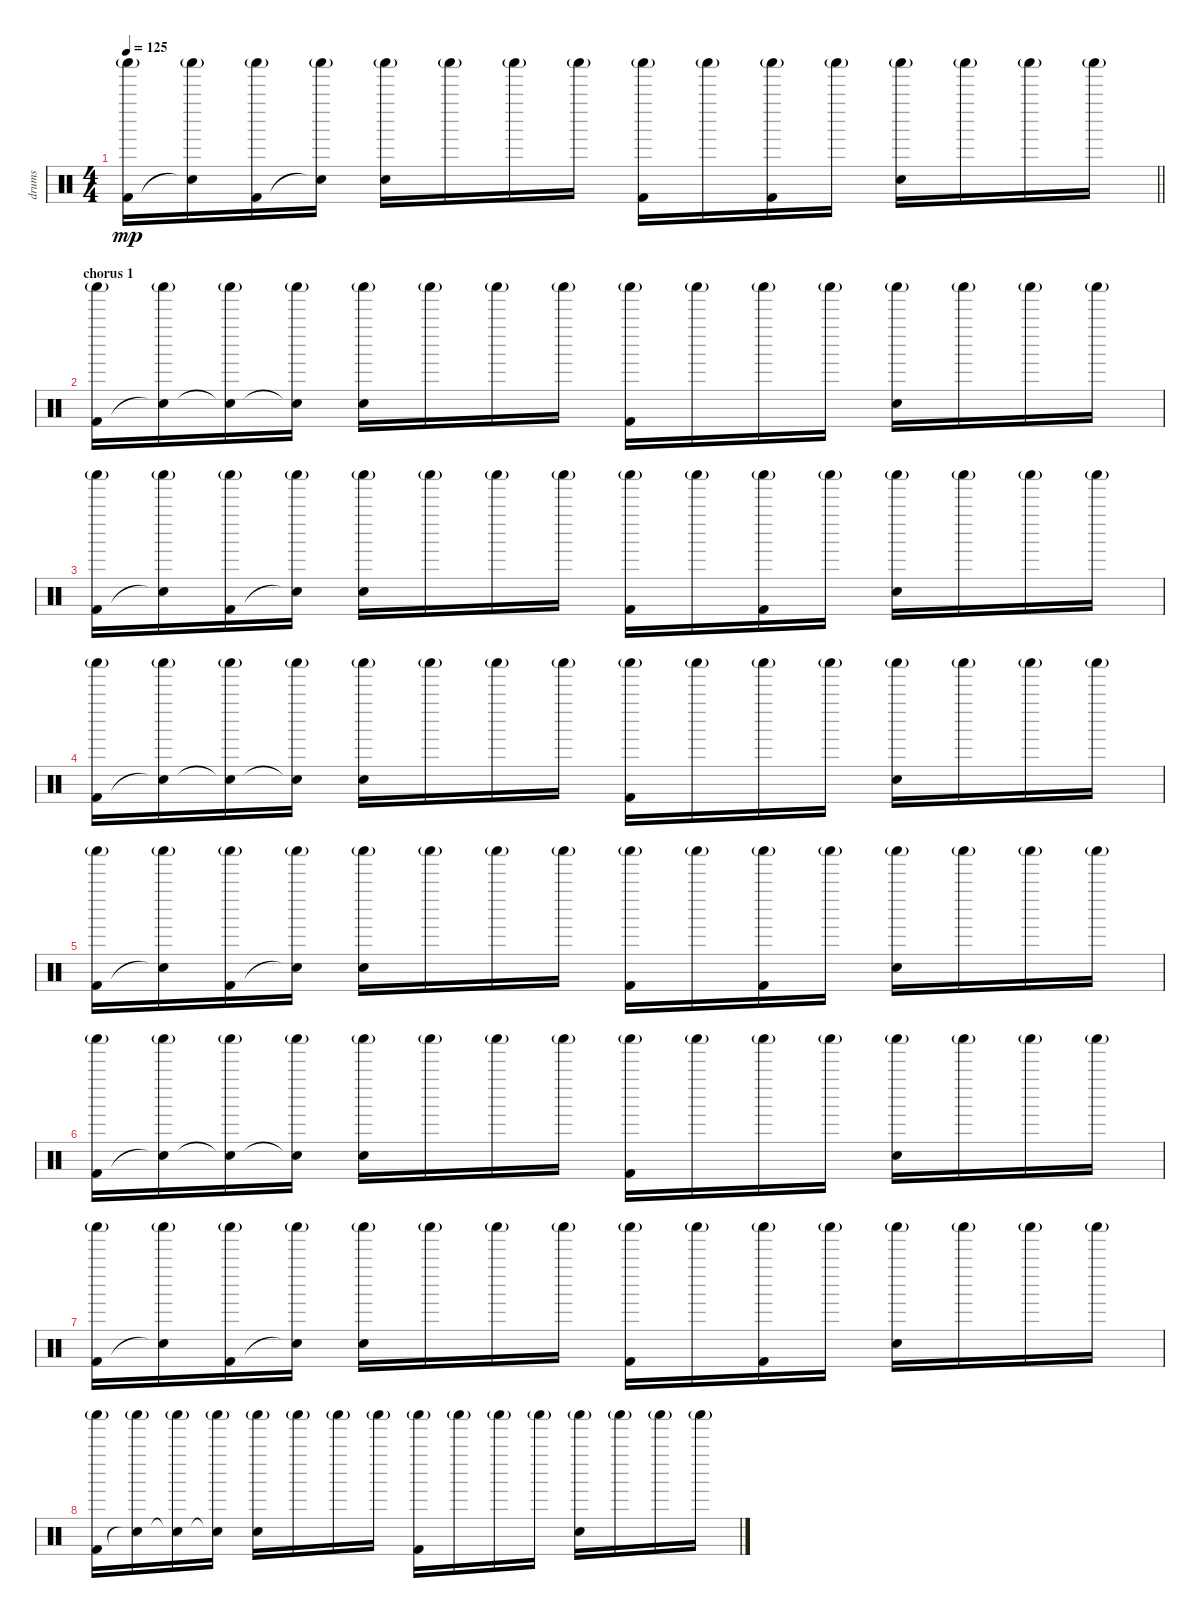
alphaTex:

\track ("drums" "drums") {instrument percussion}
\staff {score}
\articulation defaults
\ts (4 4)
\tempo 125
\clef neutral
\barLineRight lightlight
\ks c
("Shaker (hit)"{g} "Kick (hit) 2").16{dy mp} ("Shaker (hit)"{g} "Snare (hit)"{t}).16 ("Shaker (hit)"{g} "Kick (hit) 2").16 ("Shaker (hit)"{g} "Snare (hit)"{t}).16 ("Shaker (hit)"{g} "Snare (hit) 2").16 "Shaker (hit)"{g}.16 "Shaker (hit)"{g}.16 "Shaker (hit)"{g}.16 ("Shaker (hit)"{g} "Kick (hit) 2").16 "Shaker (hit)"{g}.16 ("Shaker (hit)"{g} "Kick (hit) 2").16 "Shaker (hit)"{g}.16 ("Shaker (hit)"{g} "Snare (hit) 2").16 "Shaker (hit)"{g}.16 "Shaker (hit)"{g}.16 "Shaker (hit)"{g}.16 |
\section ("" "chorus 1")
("Shaker (hit)"{g} "Kick (hit) 2").16 ("Shaker (hit)"{g} "Snare (hit)"{t}).16 ("Shaker (hit)"{g} "Snare (hit)"{t}).16 ("Shaker (hit)"{g} "Snare (hit)"{t}).16 ("Shaker (hit)"{g} "Snare (hit) 2").16 "Shaker (hit)"{g}.16 "Shaker (hit)"{g}.16 "Shaker (hit)"{g}.16 ("Shaker (hit)"{g} "Kick (hit) 2").16 "Shaker (hit)"{g}.16 "Shaker (hit)"{g}.16 "Shaker (hit)"{g}.16 ("Shaker (hit)"{g} "Snare (hit) 2").16 "Shaker (hit)"{g}.16 "Shaker (hit)"{g}.16 "Shaker (hit)"{g}.16 |
("Shaker (hit)"{g} "Kick (hit) 2").16 ("Shaker (hit)"{g} "Snare (hit)"{t}).16 ("Shaker (hit)"{g} "Kick (hit) 2").16 ("Shaker (hit)"{g} "Snare (hit)"{t}).16 ("Shaker (hit)"{g} "Snare (hit) 2").16 "Shaker (hit)"{g}.16 "Shaker (hit)"{g}.16 "Shaker (hit)"{g}.16 ("Shaker (hit)"{g} "Kick (hit) 2").16 "Shaker (hit)"{g}.16 ("Shaker (hit)"{g} "Kick (hit) 2").16 "Shaker (hit)"{g}.16 ("Shaker (hit)"{g} "Snare (hit) 2").16 "Shaker (hit)"{g}.16 "Shaker (hit)"{g}.16 "Shaker (hit)"{g}.16 |
("Shaker (hit)"{g} "Kick (hit) 2").16 ("Shaker (hit)"{g} "Snare (hit)"{t}).16 ("Shaker (hit)"{g} "Snare (hit)"{t}).16 ("Shaker (hit)"{g} "Snare (hit)"{t}).16 ("Shaker (hit)"{g} "Snare (hit) 2").16 "Shaker (hit)"{g}.16 "Shaker (hit)"{g}.16 "Shaker (hit)"{g}.16 ("Shaker (hit)"{g} "Kick (hit) 2").16 "Shaker (hit)"{g}.16 "Shaker (hit)"{g}.16 "Shaker (hit)"{g}.16 ("Shaker (hit)"{g} "Snare (hit) 2").16 "Shaker (hit)"{g}.16 "Shaker (hit)"{g}.16 "Shaker (hit)"{g}.16 |
("Shaker (hit)"{g} "Kick (hit) 2").16 ("Shaker (hit)"{g} "Snare (hit)"{t}).16 ("Shaker (hit)"{g} "Kick (hit) 2").16 ("Shaker (hit)"{g} "Snare (hit)"{t}).16 ("Shaker (hit)"{g} "Snare (hit) 2").16 "Shaker (hit)"{g}.16 "Shaker (hit)"{g}.16 "Shaker (hit)"{g}.16 ("Shaker (hit)"{g} "Kick (hit) 2").16 "Shaker (hit)"{g}.16 ("Shaker (hit)"{g} "Kick (hit) 2").16 "Shaker (hit)"{g}.16 ("Shaker (hit)"{g} "Snare (hit) 2").16 "Shaker (hit)"{g}.16 "Shaker (hit)"{g}.16 "Shaker (hit)"{g}.16 |
("Shaker (hit)"{g} "Kick (hit) 2").16 ("Shaker (hit)"{g} "Snare (hit)"{t}).16 ("Shaker (hit)"{g} "Snare (hit)"{t}).16 ("Shaker (hit)"{g} "Snare (hit)"{t}).16 ("Shaker (hit)"{g} "Snare (hit) 2").16 "Shaker (hit)"{g}.16 "Shaker (hit)"{g}.16 "Shaker (hit)"{g}.16 ("Shaker (hit)"{g} "Kick (hit) 2").16 "Shaker (hit)"{g}.16 "Shaker (hit)"{g}.16 "Shaker (hit)"{g}.16 ("Shaker (hit)"{g} "Snare (hit) 2").16 "Shaker (hit)"{g}.16 "Shaker (hit)"{g}.16 "Shaker (hit)"{g}.16 |
("Shaker (hit)"{g} "Kick (hit) 2").16 ("Shaker (hit)"{g} "Snare (hit)"{t}).16 ("Shaker (hit)"{g} "Kick (hit) 2").16 ("Shaker (hit)"{g} "Snare (hit)"{t}).16 ("Shaker (hit)"{g} "Snare (hit) 2").16 "Shaker (hit)"{g}.16 "Shaker (hit)"{g}.16 "Shaker (hit)"{g}.16 ("Shaker (hit)"{g} "Kick (hit) 2").16 "Shaker (hit)"{g}.16 ("Shaker (hit)"{g} "Kick (hit) 2").16 "Shaker (hit)"{g}.16 ("Shaker (hit)"{g} "Snare (hit) 2").16 "Shaker (hit)"{g}.16 "Shaker (hit)"{g}.16 "Shaker (hit)"{g}.16 |
("Shaker (hit)"{g} "Kick (hit) 2").16 ("Shaker (hit)"{g} "Snare (hit)"{t}).16 ("Shaker (hit)"{g} "Snare (hit)"{t}).16 ("Shaker (hit)"{g} "Snare (hit)"{t}).16 ("Shaker (hit)"{g} "Snare (hit) 2").16 "Shaker (hit)"{g}.16 "Shaker (hit)"{g}.16 "Shaker (hit)"{g}.16 ("Shaker (hit)"{g} "Kick (hit) 2").16 "Shaker (hit)"{g}.16 "Shaker (hit)"{g}.16 "Shaker (hit)"{g}.16 ("Shaker (hit)"{g} "Snare (hit) 2").16 "Shaker (hit)"{g}.16 "Shaker (hit)"{g}.16 "Shaker (hit)"{g}.16
